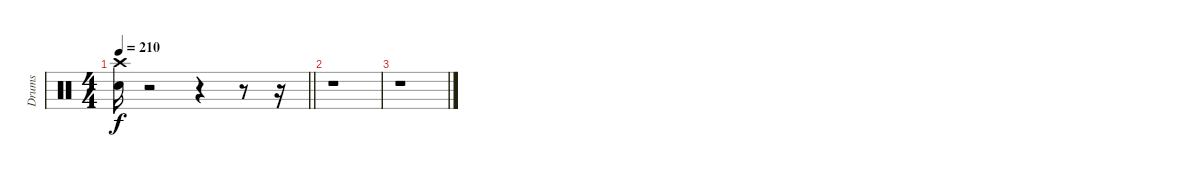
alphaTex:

\track ("Drums" "Drums") {instrument percussion}
\staff {score}
\articulation defaults
\ts (4 4)
\tempo 210
\clef neutral
\barLineRight lightlight
\ks c
("Snare (hit) 2" "Crash high (hit)").16{dy f} r.2 r.4 r.8 r.16 |
r.1 |
r.1
